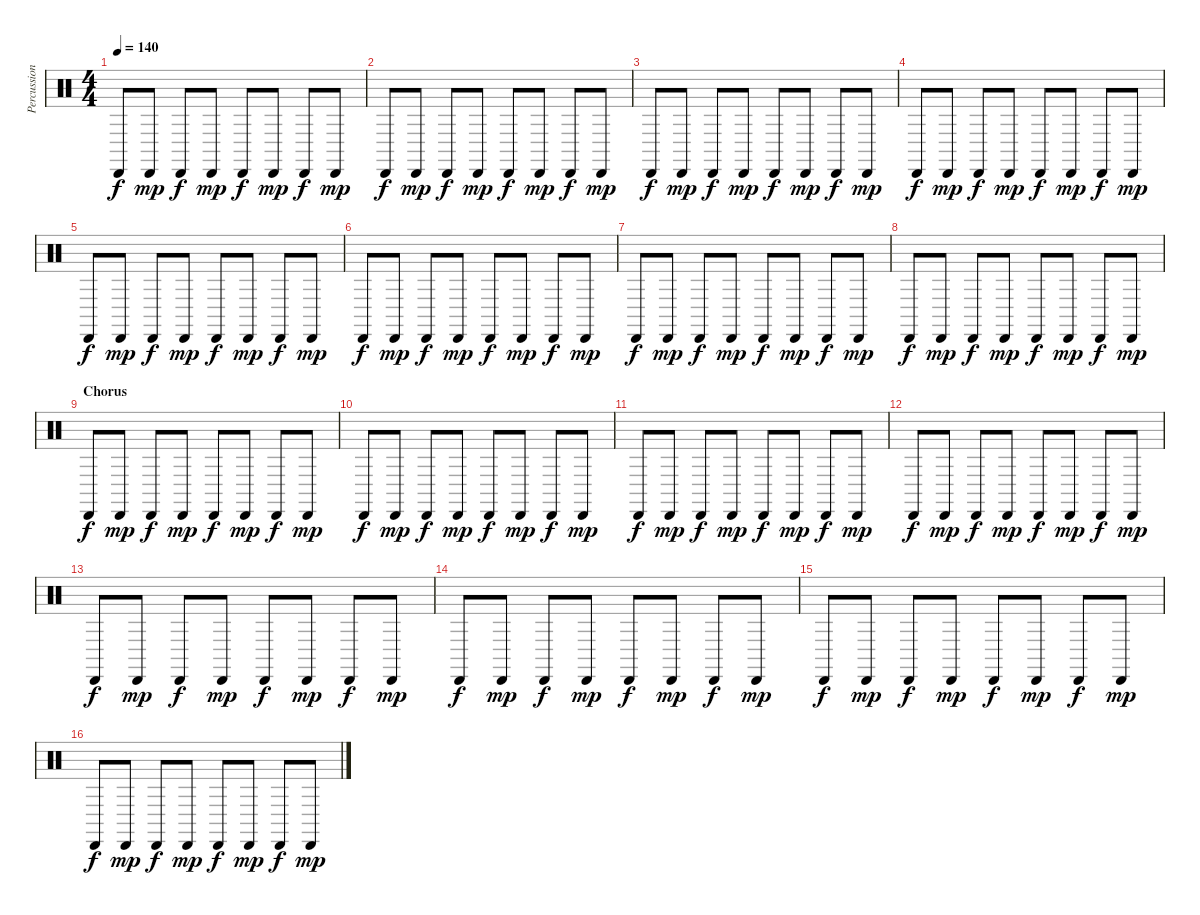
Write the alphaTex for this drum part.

\track ("Percussion" "Percussion") {instrument percussion}
\staff {score}
\articulation defaults
\ts (4 4)
\tempo 140
\clef neutral
\ks c "Cabasa (hit)".8{dy f} "Cabasa (hit)".8{dy mp} "Cabasa (hit)".8{dy f} "Cabasa (hit)".8{dy mp} "Cabasa (hit)".8{dy f} "Cabasa (hit)".8{dy mp} "Cabasa (hit)".8{dy f} "Cabasa (hit)".8{dy mp}
|
"Cabasa (hit)".8{dy f} "Cabasa (hit)".8{dy mp} "Cabasa (hit)".8{dy f} "Cabasa (hit)".8{dy mp} "Cabasa (hit)".8{dy f} "Cabasa (hit)".8{dy mp} "Cabasa (hit)".8{dy f} "Cabasa (hit)".8{dy mp} |
"Cabasa (hit)".8{dy f} "Cabasa (hit)".8{dy mp} "Cabasa (hit)".8{dy f} "Cabasa (hit)".8{dy mp} "Cabasa (hit)".8{dy f} "Cabasa (hit)".8{dy mp} "Cabasa (hit)".8{dy f} "Cabasa (hit)".8{dy mp} |
"Cabasa (hit)".8{dy f} "Cabasa (hit)".8{dy mp} "Cabasa (hit)".8{dy f} "Cabasa (hit)".8{dy mp} "Cabasa (hit)".8{dy f} "Cabasa (hit)".8{dy mp} "Cabasa (hit)".8{dy f} "Cabasa (hit)".8{dy mp} |
"Cabasa (hit)".8{dy f} "Cabasa (hit)".8{dy mp} "Cabasa (hit)".8{dy f} "Cabasa (hit)".8{dy mp} "Cabasa (hit)".8{dy f} "Cabasa (hit)".8{dy mp} "Cabasa (hit)".8{dy f} "Cabasa (hit)".8{dy mp} |
"Cabasa (hit)".8{dy f} "Cabasa (hit)".8{dy mp} "Cabasa (hit)".8{dy f} "Cabasa (hit)".8{dy mp} "Cabasa (hit)".8{dy f} "Cabasa (hit)".8{dy mp} "Cabasa (hit)".8{dy f} "Cabasa (hit)".8{dy mp} |
"Cabasa (hit)".8{dy f} "Cabasa (hit)".8{dy mp} "Cabasa (hit)".8{dy f} "Cabasa (hit)".8{dy mp} "Cabasa (hit)".8{dy f} "Cabasa (hit)".8{dy mp} "Cabasa (hit)".8{dy f} "Cabasa (hit)".8{dy mp} |
"Cabasa (hit)".8{dy f} "Cabasa (hit)".8{dy mp} "Cabasa (hit)".8{dy f} "Cabasa (hit)".8{dy mp} "Cabasa (hit)".8{dy f} "Cabasa (hit)".8{dy mp} "Cabasa (hit)".8{dy f} "Cabasa (hit)".8{dy mp} |
\section ("" "Chorus")
"Cabasa (hit)".8{dy f} "Cabasa (hit)".8{dy mp} "Cabasa (hit)".8{dy f} "Cabasa (hit)".8{dy mp} "Cabasa (hit)".8{dy f} "Cabasa (hit)".8{dy mp} "Cabasa (hit)".8{dy f} "Cabasa (hit)".8{dy mp} |
"Cabasa (hit)".8{dy f} "Cabasa (hit)".8{dy mp} "Cabasa (hit)".8{dy f} "Cabasa (hit)".8{dy mp} "Cabasa (hit)".8{dy f} "Cabasa (hit)".8{dy mp} "Cabasa (hit)".8{dy f} "Cabasa (hit)".8{dy mp} |
"Cabasa (hit)".8{dy f} "Cabasa (hit)".8{dy mp} "Cabasa (hit)".8{dy f} "Cabasa (hit)".8{dy mp} "Cabasa (hit)".8{dy f} "Cabasa (hit)".8{dy mp} "Cabasa (hit)".8{dy f} "Cabasa (hit)".8{dy mp} |
"Cabasa (hit)".8{dy f} "Cabasa (hit)".8{dy mp} "Cabasa (hit)".8{dy f} "Cabasa (hit)".8{dy mp} "Cabasa (hit)".8{dy f} "Cabasa (hit)".8{dy mp} "Cabasa (hit)".8{dy f} "Cabasa (hit)".8{dy mp} |
"Cabasa (hit)".8{dy f} "Cabasa (hit)".8{dy mp} "Cabasa (hit)".8{dy f} "Cabasa (hit)".8{dy mp} "Cabasa (hit)".8{dy f} "Cabasa (hit)".8{dy mp} "Cabasa (hit)".8{dy f} "Cabasa (hit)".8{dy mp} |
"Cabasa (hit)".8{dy f} "Cabasa (hit)".8{dy mp} "Cabasa (hit)".8{dy f} "Cabasa (hit)".8{dy mp} "Cabasa (hit)".8{dy f} "Cabasa (hit)".8{dy mp} "Cabasa (hit)".8{dy f} "Cabasa (hit)".8{dy mp} |
"Cabasa (hit)".8{dy f} "Cabasa (hit)".8{dy mp} "Cabasa (hit)".8{dy f} "Cabasa (hit)".8{dy mp} "Cabasa (hit)".8{dy f} "Cabasa (hit)".8{dy mp} "Cabasa (hit)".8{dy f} "Cabasa (hit)".8{dy mp} |
"Cabasa (hit)".8{dy f} "Cabasa (hit)".8{dy mp} "Cabasa (hit)".8{dy f} "Cabasa (hit)".8{dy mp} "Cabasa (hit)".8{dy f} "Cabasa (hit)".8{dy mp} "Cabasa (hit)".8{dy f} "Cabasa (hit)".8{dy mp}
